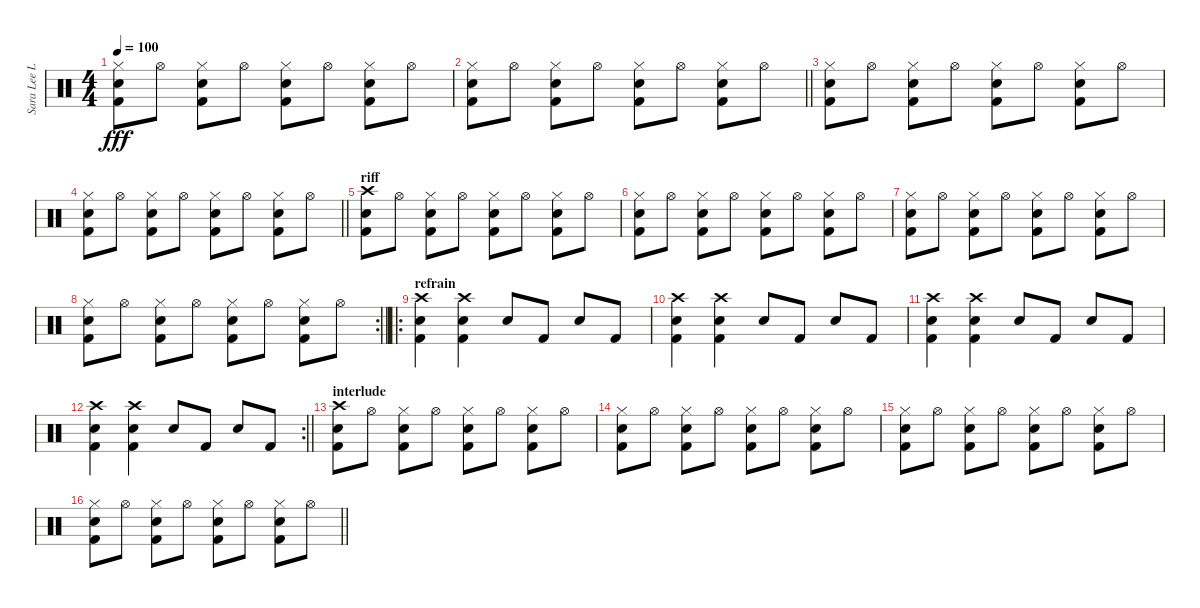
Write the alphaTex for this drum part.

\track ("Sara Lee Lucas (drums)" "Sara Lee L") {instrument percussion}
\staff {score}
\articulation defaults
\ts (4 4)
\tempo 100
\clef neutral
\ks c
("Hi-Hat (closed)" "Snare (hit) 2" "Kick (hit) 2").8{dy fff} "Hi-Hat (open)".8 ("Hi-Hat (closed)" "Snare (hit) 2" "Kick (hit) 2").8 "Hi-Hat (open)".8 ("Hi-Hat (closed)" "Snare (hit) 2" "Kick (hit) 2").8 "Hi-Hat (open)".8 ("Hi-Hat (closed)" "Snare (hit) 2" "Kick (hit) 2").8 "Hi-Hat (open)".8 |
\barLineRight lightlight
("Hi-Hat (closed)" "Snare (hit) 2" "Kick (hit) 2").8 "Hi-Hat (open)".8 ("Hi-Hat (closed)" "Snare (hit) 2" "Kick (hit) 2").8 "Hi-Hat (open)".8 ("Hi-Hat (closed)" "Snare (hit) 2" "Kick (hit) 2").8 "Hi-Hat (open)".8 ("Hi-Hat (closed)" "Snare (hit) 2" "Kick (hit) 2").8 "Hi-Hat (open)".8 |
("Hi-Hat (closed)" "Snare (hit) 2" "Kick (hit) 2").8 "Hi-Hat (open)".8 ("Hi-Hat (closed)" "Snare (hit) 2" "Kick (hit) 2").8 "Hi-Hat (open)".8 ("Hi-Hat (closed)" "Snare (hit) 2" "Kick (hit) 2").8 "Hi-Hat (open)".8 ("Hi-Hat (closed)" "Snare (hit) 2" "Kick (hit) 2").8 "Hi-Hat (open)".8 |
\barLineRight lightlight
("Hi-Hat (closed)" "Snare (hit) 2" "Kick (hit) 2").8 "Hi-Hat (open)".8 ("Hi-Hat (closed)" "Snare (hit) 2" "Kick (hit) 2").8 "Hi-Hat (open)".8 ("Hi-Hat (closed)" "Snare (hit) 2" "Kick (hit) 2").8 "Hi-Hat (open)".8 ("Hi-Hat (closed)" "Snare (hit) 2" "Kick (hit) 2").8 "Hi-Hat (open)".8 |
\section ("" "riff")
("Crash high (hit)" "Snare (hit) 2" "Kick (hit) 2").8 "Hi-Hat (open)".8 ("Hi-Hat (closed)" "Snare (hit) 2" "Kick (hit) 2").8 "Hi-Hat (open)".8 ("Hi-Hat (closed)" "Snare (hit) 2" "Kick (hit) 2").8 "Hi-Hat (open)".8 ("Hi-Hat (closed)" "Snare (hit) 2" "Kick (hit) 2").8 "Hi-Hat (open)".8 |
("Hi-Hat (closed)" "Snare (hit) 2" "Kick (hit) 2").8 "Hi-Hat (open)".8 ("Hi-Hat (closed)" "Snare (hit) 2" "Kick (hit) 2").8 "Hi-Hat (open)".8 ("Hi-Hat (closed)" "Snare (hit) 2" "Kick (hit) 2").8 "Hi-Hat (open)".8 ("Hi-Hat (closed)" "Snare (hit) 2" "Kick (hit) 2").8 "Hi-Hat (open)".8 |
("Hi-Hat (closed)" "Snare (hit) 2" "Kick (hit) 2").8 "Hi-Hat (open)".8 ("Hi-Hat (closed)" "Snare (hit) 2" "Kick (hit) 2").8 "Hi-Hat (open)".8 ("Hi-Hat (closed)" "Snare (hit) 2" "Kick (hit) 2").8 "Hi-Hat (open)".8 ("Hi-Hat (closed)" "Snare (hit) 2" "Kick (hit) 2").8 "Hi-Hat (open)".8 |
\rc 2
\barLineRight lightlight
("Hi-Hat (closed)" "Snare (hit) 2" "Kick (hit) 2").8 "Hi-Hat (open)".8 ("Hi-Hat (closed)" "Snare (hit) 2" "Kick (hit) 2").8 "Hi-Hat (open)".8 ("Hi-Hat (closed)" "Snare (hit) 2" "Kick (hit) 2").8 "Hi-Hat (open)".8 ("Hi-Hat (closed)" "Snare (hit) 2" "Kick (hit) 2").8 "Hi-Hat (open)".8 |
\ro
\section ("" "refrain")
("Crash high (hit)" "Snare (hit) 2" "Kick (hit) 2").4 ("Crash high (hit)" "Snare (hit) 2" "Kick (hit) 2").4 "Snare (hit) 2".8 "Kick (hit) 2".8 "Snare (hit) 2".8 "Kick (hit) 2".8 |
("Crash high (hit)" "Snare (hit) 2" "Kick (hit) 2").4 ("Crash high (hit)" "Snare (hit) 2" "Kick (hit) 2").4 "Snare (hit) 2".8 "Kick (hit) 2".8 "Snare (hit) 2".8 "Kick (hit) 2".8 |
("Crash high (hit)" "Snare (hit) 2" "Kick (hit) 2").4 ("Crash high (hit)" "Snare (hit) 2" "Kick (hit) 2").4 "Snare (hit) 2".8 "Kick (hit) 2".8 "Snare (hit) 2".8 "Kick (hit) 2".8 |
\rc 2
\barLineRight lightlight
("Crash high (hit)" "Snare (hit) 2" "Kick (hit) 2").4 ("Crash high (hit)" "Snare (hit) 2" "Kick (hit) 2").4 "Snare (hit) 2".8 "Kick (hit) 2".8 "Snare (hit) 2".8 "Kick (hit) 2".8 |
\section ("" "interlude")
("Crash high (hit)" "Snare (hit) 2" "Kick (hit) 2").8 "Hi-Hat (open)".8 ("Hi-Hat (closed)" "Snare (hit) 2" "Kick (hit) 2").8 "Hi-Hat (open)".8 ("Hi-Hat (closed)" "Snare (hit) 2" "Kick (hit) 2").8 "Hi-Hat (open)".8 ("Hi-Hat (closed)" "Snare (hit) 2" "Kick (hit) 2").8 "Hi-Hat (open)".8 |
("Hi-Hat (closed)" "Snare (hit) 2" "Kick (hit) 2").8 "Hi-Hat (open)".8 ("Hi-Hat (closed)" "Snare (hit) 2" "Kick (hit) 2").8 "Hi-Hat (open)".8 ("Hi-Hat (closed)" "Snare (hit) 2" "Kick (hit) 2").8 "Hi-Hat (open)".8 ("Hi-Hat (closed)" "Snare (hit) 2" "Kick (hit) 2").8 "Hi-Hat (open)".8 |
("Hi-Hat (closed)" "Snare (hit) 2" "Kick (hit) 2").8 "Hi-Hat (open)".8 ("Hi-Hat (closed)" "Snare (hit) 2" "Kick (hit) 2").8 "Hi-Hat (open)".8 ("Hi-Hat (closed)" "Snare (hit) 2" "Kick (hit) 2").8 "Hi-Hat (open)".8 ("Hi-Hat (closed)" "Snare (hit) 2" "Kick (hit) 2").8 "Hi-Hat (open)".8 |
\barLineRight lightlight
("Hi-Hat (closed)" "Snare (hit) 2" "Kick (hit) 2").8 "Hi-Hat (open)".8 ("Hi-Hat (closed)" "Snare (hit) 2" "Kick (hit) 2").8 "Hi-Hat (open)".8 ("Hi-Hat (closed)" "Snare (hit) 2" "Kick (hit) 2").8 "Hi-Hat (open)".8 ("Hi-Hat (closed)" "Snare (hit) 2" "Kick (hit) 2").8 "Hi-Hat (open)".8
